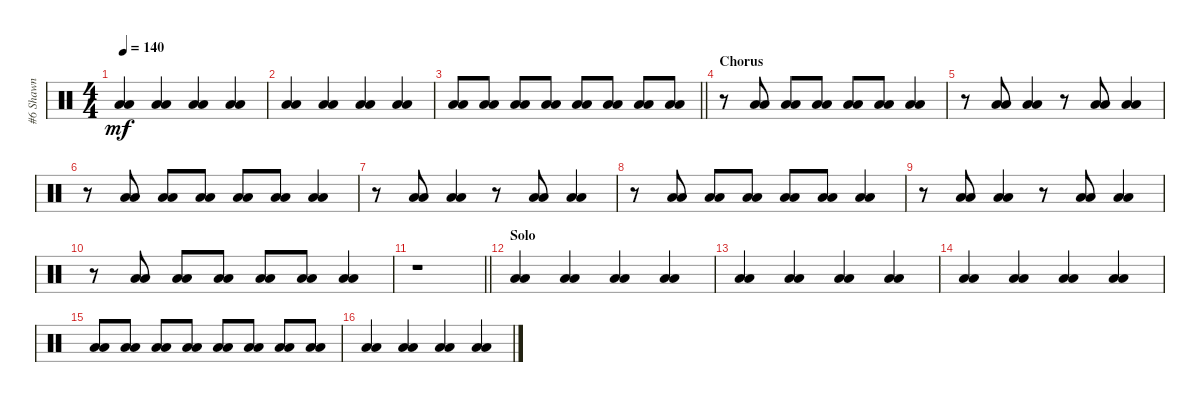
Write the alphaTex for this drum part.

\track ("#6 Shawn" "#6 Shawn") {solo instrument percussion}
\staff {score}
\articulation defaults
\ts (4 4)
\tempo 140
\clef neutral
\ks c
("Low Floor Tom (hit)" "Low Floor Tom (hit)").4{dy mf} ("Low Tom (hit)" "Low Tom (hit)").4 ("Low Floor Tom (hit)" "Low Floor Tom (hit)").4 ("Low Tom (hit)" "Low Tom (hit)").4 |
("Low Floor Tom (hit)" "Low Floor Tom (hit)").4 ("Low Tom (hit)" "Low Tom (hit)").4 ("Low Floor Tom (hit)" "Low Floor Tom (hit)").4 ("Low Tom (hit)" "Low Tom (hit)").4 |
\barLineRight lightlight
("Low Tom (hit)" "Low Floor Tom (hit)").8 ("Low Tom (hit)" "Low Floor Tom (hit)").8 ("Low Tom (hit)" "Low Floor Tom (hit)").8 ("Low Tom (hit)" "Low Floor Tom (hit)").8 ("Low Tom (hit)" "Low Floor Tom (hit)").8 ("Low Tom (hit)" "Low Floor Tom (hit)").8 ("Low Tom (hit)" "Low Floor Tom (hit)").8 ("Low Tom (hit)" "Low Floor Tom (hit)").8 |
\section ("" "Chorus")
r.8 ("Low Tom (hit)" "Low Floor Tom (hit)").8 ("Low Tom (hit)" "Low Floor Tom (hit)").8 ("Low Tom (hit)" "Low Floor Tom (hit)").8 ("Low Tom (hit)" "Low Floor Tom (hit)").8 ("Low Tom (hit)" "Low Floor Tom (hit)").8 ("Low Tom (hit)" "Low Floor Tom (hit)").4 |
r.8 ("Low Tom (hit)" "Low Floor Tom (hit)").8 ("Low Tom (hit)" "Low Floor Tom (hit)").4 r.8 ("Low Tom (hit)" "Low Floor Tom (hit)").8 ("Low Tom (hit)" "Low Floor Tom (hit)").4 |
r.8 ("Low Tom (hit)" "Low Floor Tom (hit)").8 ("Low Tom (hit)" "Low Floor Tom (hit)").8 ("Low Tom (hit)" "Low Floor Tom (hit)").8 ("Low Tom (hit)" "Low Floor Tom (hit)").8 ("Low Tom (hit)" "Low Floor Tom (hit)").8 ("Low Tom (hit)" "Low Floor Tom (hit)").4 |
r.8 ("Low Tom (hit)" "Low Floor Tom (hit)").8 ("Low Tom (hit)" "Low Floor Tom (hit)").4 r.8 ("Low Tom (hit)" "Low Floor Tom (hit)").8 ("Low Tom (hit)" "Low Floor Tom (hit)").4 |
r.8 ("Low Tom (hit)" "Low Floor Tom (hit)").8 ("Low Tom (hit)" "Low Floor Tom (hit)").8 ("Low Tom (hit)" "Low Floor Tom (hit)").8 ("Low Tom (hit)" "Low Floor Tom (hit)").8 ("Low Tom (hit)" "Low Floor Tom (hit)").8 ("Low Tom (hit)" "Low Floor Tom (hit)").4 |
r.8 ("Low Tom (hit)" "Low Floor Tom (hit)").8 ("Low Tom (hit)" "Low Floor Tom (hit)").4 r.8 ("Low Tom (hit)" "Low Floor Tom (hit)").8 ("Low Tom (hit)" "Low Floor Tom (hit)").4 |
r.8 ("Low Tom (hit)" "Low Floor Tom (hit)").8 ("Low Tom (hit)" "Low Floor Tom (hit)").8 ("Low Tom (hit)" "Low Floor Tom (hit)").8 ("Low Tom (hit)" "Low Floor Tom (hit)").8 ("Low Tom (hit)" "Low Floor Tom (hit)").8 ("Low Tom (hit)" "Low Floor Tom (hit)").4 |
\barLineRight lightlight
r.1 |
\section ("" "Solo")
("Low Floor Tom (hit)" "Low Floor Tom (hit)").4 ("Low Tom (hit)" "Low Tom (hit)").4 ("Low Floor Tom (hit)" "Low Floor Tom (hit)").4 ("Low Tom (hit)" "Low Tom (hit)").4 |
("Low Floor Tom (hit)" "Low Floor Tom (hit)").4 ("Low Tom (hit)" "Low Tom (hit)").4 ("Low Floor Tom (hit)" "Low Floor Tom (hit)").4 ("Low Tom (hit)" "Low Tom (hit)").4 |
("Low Floor Tom (hit)" "Low Floor Tom (hit)").4 ("Low Tom (hit)" "Low Tom (hit)").4 ("Low Floor Tom (hit)" "Low Floor Tom (hit)").4 ("Low Tom (hit)" "Low Tom (hit)").4 |
("Low Tom (hit)" "Low Floor Tom (hit)").8 ("Low Tom (hit)" "Low Floor Tom (hit)").8 ("Low Tom (hit)" "Low Floor Tom (hit)").8 ("Low Tom (hit)" "Low Floor Tom (hit)").8 ("Low Tom (hit)" "Low Floor Tom (hit)").8 ("Low Tom (hit)" "Low Floor Tom (hit)").8 ("Low Tom (hit)" "Low Floor Tom (hit)").8 ("Low Tom (hit)" "Low Floor Tom (hit)").8 |
("Low Floor Tom (hit)" "Low Floor Tom (hit)").4 ("Low Tom (hit)" "Low Tom (hit)").4 ("Low Floor Tom (hit)" "Low Floor Tom (hit)").4 ("Low Tom (hit)" "Low Tom (hit)").4
